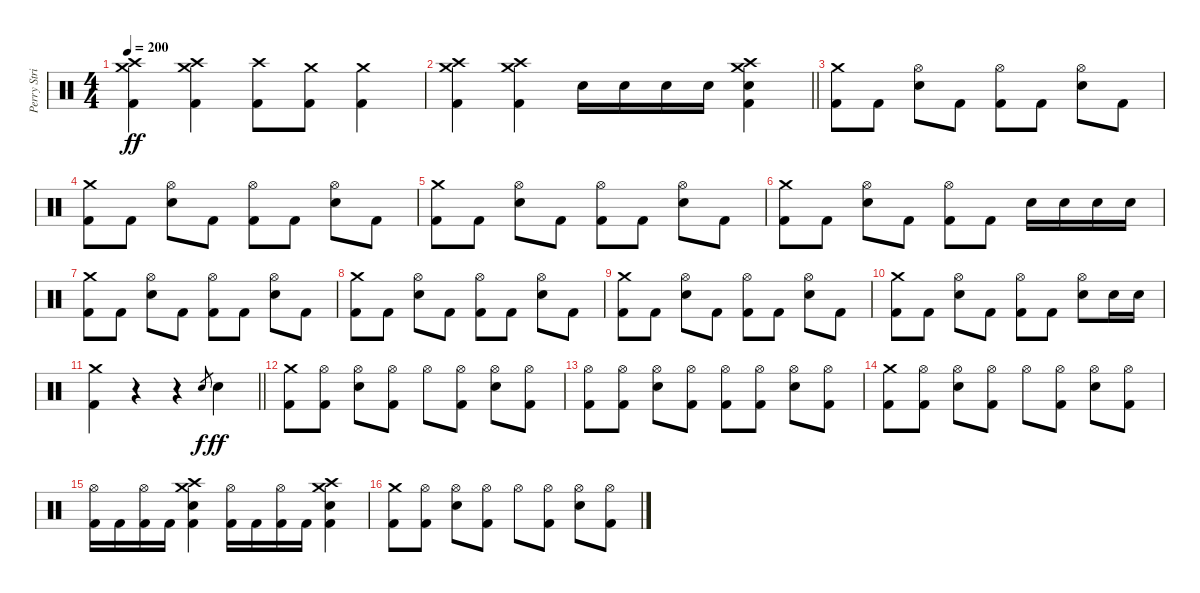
\track ("Perry Strickland" "Perry Stri") {instrument percussion}
\staff {score}
\articulation defaults
\ts (4 4)
\tempo 200
\clef neutral
\ks c
("Crash medium (hit)" "Crash high (hit)" "Kick (hit) 2").4{dy ff} ("Crash medium (hit)" "Crash high (hit)" "Kick (hit) 2").4 ("Crash high (hit)" "Kick (hit) 2").8 ("Crash medium (hit)" "Kick (hit) 2").8 ("Crash medium (hit)" "Kick (hit) 2").4 |
\barLineRight lightlight
("Crash medium (hit)" "Crash high (hit)" "Kick (hit) 2").4 ("Crash medium (hit)" "Crash high (hit)" "Kick (hit) 2").4 "Snare (hit) 2".16 "Snare (hit) 2".16 "Snare (hit) 2".16 "Snare (hit) 2".16 ("Crash medium (hit)" "Crash high (hit)" "Snare (hit) 2" "Kick (hit) 2").4 |
("Crash medium (hit)" "Kick (hit) 2").8 "Kick (hit) 2".8 ("Hi-Hat (open)" "Snare (hit) 2").8 "Kick (hit) 2".8 ("Hi-Hat (open)" "Kick (hit) 2").8 "Kick (hit) 2".8 ("Hi-Hat (open)" "Snare (hit) 2").8 "Kick (hit) 2".8 |
("Crash medium (hit)" "Kick (hit) 2").8 "Kick (hit) 2".8 ("Hi-Hat (open)" "Snare (hit) 2").8 "Kick (hit) 2".8 ("Hi-Hat (open)" "Kick (hit) 2").8 "Kick (hit) 2".8 ("Hi-Hat (open)" "Snare (hit) 2").8 "Kick (hit) 2".8 |
("Crash medium (hit)" "Kick (hit) 2").8 "Kick (hit) 2".8 ("Hi-Hat (open)" "Snare (hit) 2").8 "Kick (hit) 2".8 ("Hi-Hat (open)" "Kick (hit) 2").8 "Kick (hit) 2".8 ("Hi-Hat (open)" "Snare (hit) 2").8 "Kick (hit) 2".8 |
("Crash medium (hit)" "Kick (hit) 2").8 "Kick (hit) 2".8 ("Hi-Hat (open)" "Snare (hit) 2").8 "Kick (hit) 2".8 ("Hi-Hat (open)" "Kick (hit) 2").8 "Kick (hit) 2".8 "Snare (hit) 2".16 "Snare (hit) 2".16 "Snare (hit) 2".16 "Snare (hit) 2".16 |
("Crash medium (hit)" "Kick (hit) 2").8 "Kick (hit) 2".8 ("Hi-Hat (open)" "Snare (hit) 2").8 "Kick (hit) 2".8 ("Hi-Hat (open)" "Kick (hit) 2").8 "Kick (hit) 2".8 ("Hi-Hat (open)" "Snare (hit) 2").8 "Kick (hit) 2".8 |
("Crash medium (hit)" "Kick (hit) 2").8 "Kick (hit) 2".8 ("Hi-Hat (open)" "Snare (hit) 2").8 "Kick (hit) 2".8 ("Hi-Hat (open)" "Kick (hit) 2").8 "Kick (hit) 2".8 ("Hi-Hat (open)" "Snare (hit) 2").8 "Kick (hit) 2".8 |
("Crash medium (hit)" "Kick (hit) 2").8 "Kick (hit) 2".8 ("Hi-Hat (open)" "Snare (hit) 2").8 "Kick (hit) 2".8 ("Hi-Hat (open)" "Kick (hit) 2").8 "Kick (hit) 2".8 ("Hi-Hat (open)" "Snare (hit) 2").8 "Kick (hit) 2".8 |
("Crash medium (hit)" "Kick (hit) 2").8 "Kick (hit) 2".8 ("Hi-Hat (open)" "Snare (hit) 2").8 "Kick (hit) 2".8 ("Hi-Hat (open)" "Kick (hit) 2").8 "Kick (hit) 2".8 ("Hi-Hat (open)" "Snare (hit) 2").8 "Snare (hit) 2".16 "Snare (hit) 2".16 |
\barLineRight lightlight
("Crash medium (hit)" "Kick (hit) 2").4 r.4 r.4 "Snare (hit) 2".8{gr dy f} "Snare (hit) 2".4{dy ff} |
("Crash medium (hit)" "Kick (hit) 2").8 ("Hi-Hat (open)" "Kick (hit) 2").8 ("Hi-Hat (open)" "Snare (hit) 2").8 ("Hi-Hat (open)" "Kick (hit) 2").8 "Hi-Hat (open)".8 ("Hi-Hat (open)" "Kick (hit) 2").8 ("Hi-Hat (open)" "Snare (hit) 2").8 ("Hi-Hat (open)" "Kick (hit) 2").8 |
("Hi-Hat (open)" "Kick (hit) 2").8 ("Hi-Hat (open)" "Kick (hit) 2").8 ("Hi-Hat (open)" "Snare (hit) 2").8 ("Hi-Hat (open)" "Kick (hit) 2").8 ("Hi-Hat (open)" "Kick (hit) 2").8 ("Hi-Hat (open)" "Kick (hit) 2").8 ("Hi-Hat (open)" "Snare (hit) 2").8 ("Hi-Hat (open)" "Kick (hit) 2").8 |
("Crash medium (hit)" "Kick (hit) 2").8 ("Hi-Hat (open)" "Kick (hit) 2").8 ("Hi-Hat (open)" "Snare (hit) 2").8 ("Hi-Hat (open)" "Kick (hit) 2").8 "Hi-Hat (open)".8 ("Hi-Hat (open)" "Kick (hit) 2").8 ("Hi-Hat (open)" "Snare (hit) 2").8 ("Hi-Hat (open)" "Kick (hit) 2").8 |
("Hi-Hat (open)" "Kick (hit) 2").16 "Kick (hit) 2".16 ("Hi-Hat (open)" "Kick (hit) 2").16 "Kick (hit) 2".16 ("Crash high (hit)" "Crash medium (hit)" "Snare (hit) 2" "Kick (hit) 2").4 ("Hi-Hat (open)" "Kick (hit) 2").16 "Kick (hit) 2".16 ("Hi-Hat (open)" "Kick (hit) 2").16 "Kick (hit) 2".16 ("Crash high (hit)" "Crash medium (hit)" "Snare (hit) 2" "Kick (hit) 2").4 |
("Crash medium (hit)" "Kick (hit) 2").8 ("Hi-Hat (open)" "Kick (hit) 2").8 ("Hi-Hat (open)" "Snare (hit) 2").8 ("Hi-Hat (open)" "Kick (hit) 2").8 "Hi-Hat (open)".8 ("Hi-Hat (open)" "Kick (hit) 2").8 ("Hi-Hat (open)" "Snare (hit) 2").8 ("Hi-Hat (open)" "Kick (hit) 2").8
